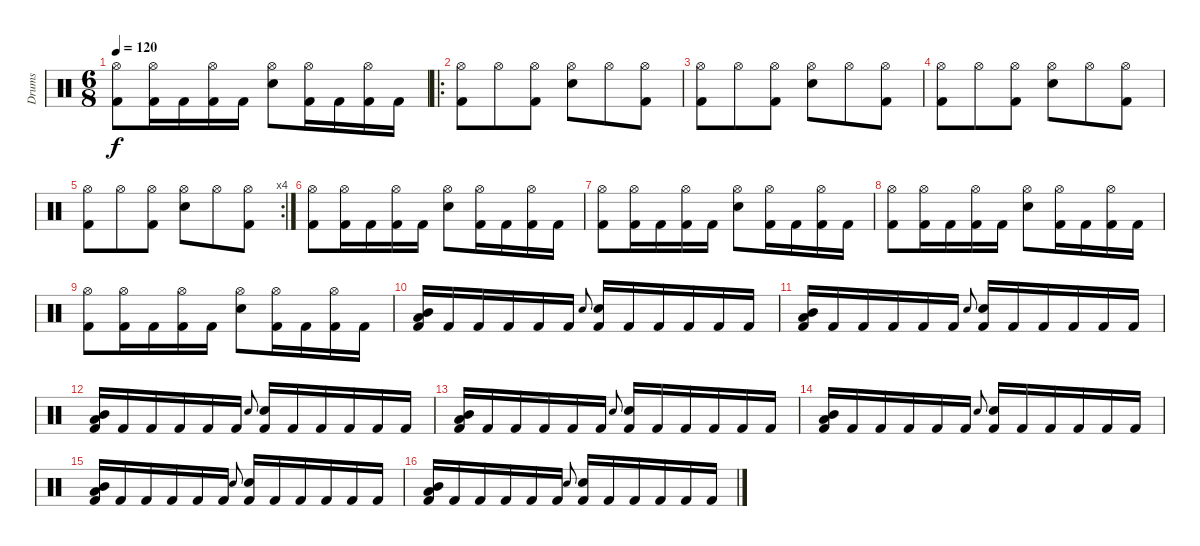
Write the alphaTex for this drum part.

\track ("Drums" "Drums") {instrument percussion}
\staff {score}
\articulation defaults
\ts (6 8)
\tempo 120
\clef neutral
\ks c
("Hi-Hat (open)" "Kick (hit) 2").8{dy f} ("Hi-Hat (open)" "Kick (hit) 2").16 "Kick (hit) 2".16 ("Hi-Hat (open)" "Kick (hit) 2").16 "Kick (hit) 2".16 ("Hi-Hat (open)" "Electric Snare (hit)").8 ("Hi-Hat (open)" "Kick (hit) 2").16 "Kick (hit) 2".16 ("Hi-Hat (open)" "Kick (hit) 2").16 "Kick (hit) 2".16 |
\ro
("Hi-Hat (open)" "Kick (hit) 2").8 "Hi-Hat (open)".8 ("Hi-Hat (open)" "Kick (hit) 2").8 ("Hi-Hat (open)" "Electric Snare (hit)").8 "Hi-Hat (open)".8 ("Hi-Hat (open)" "Kick (hit) 2").8 |
("Hi-Hat (open)" "Kick (hit) 2").8 "Hi-Hat (open)".8 ("Hi-Hat (open)" "Kick (hit) 2").8 ("Hi-Hat (open)" "Electric Snare (hit)").8 "Hi-Hat (open)".8 ("Hi-Hat (open)" "Kick (hit) 2").8 |
("Hi-Hat (open)" "Kick (hit) 2").8 "Hi-Hat (open)".8 ("Hi-Hat (open)" "Kick (hit) 2").8 ("Hi-Hat (open)" "Electric Snare (hit)").8 "Hi-Hat (open)".8 ("Hi-Hat (open)" "Kick (hit) 2").8 |
\rc 4
("Hi-Hat (open)" "Kick (hit) 2").8 "Hi-Hat (open)".8 ("Hi-Hat (open)" "Kick (hit) 2").8 ("Hi-Hat (open)" "Electric Snare (hit)").8 "Hi-Hat (open)".8 ("Hi-Hat (open)" "Kick (hit) 2").8 |
("Hi-Hat (open)" "Kick (hit) 2").8 ("Hi-Hat (open)" "Kick (hit) 2").16 "Kick (hit) 2".16 ("Hi-Hat (open)" "Kick (hit) 2").16 "Kick (hit) 2".16 ("Hi-Hat (open)" "Electric Snare (hit)").8 ("Hi-Hat (open)" "Kick (hit) 2").16 "Kick (hit) 2".16 ("Hi-Hat (open)" "Kick (hit) 2").16 "Kick (hit) 2".16 |
("Hi-Hat (open)" "Kick (hit) 2").8 ("Hi-Hat (open)" "Kick (hit) 2").16 "Kick (hit) 2".16 ("Hi-Hat (open)" "Kick (hit) 2").16 "Kick (hit) 2".16 ("Hi-Hat (open)" "Electric Snare (hit)").8 ("Hi-Hat (open)" "Kick (hit) 2").16 "Kick (hit) 2".16 ("Hi-Hat (open)" "Kick (hit) 2").16 "Kick (hit) 2".16 |
("Hi-Hat (open)" "Kick (hit) 2").8 ("Hi-Hat (open)" "Kick (hit) 2").16 "Kick (hit) 2".16 ("Hi-Hat (open)" "Kick (hit) 2").16 "Kick (hit) 2".16 ("Hi-Hat (open)" "Electric Snare (hit)").8 ("Hi-Hat (open)" "Kick (hit) 2").16 "Kick (hit) 2".16 ("Hi-Hat (open)" "Kick (hit) 2").16 "Kick (hit) 2".16 |
("Hi-Hat (open)" "Kick (hit) 2").8 ("Hi-Hat (open)" "Kick (hit) 2").16 "Kick (hit) 2".16 ("Hi-Hat (open)" "Kick (hit) 2").16 "Kick (hit) 2".16 ("Hi-Hat (open)" "Electric Snare (hit)").8 ("Hi-Hat (open)" "Kick (hit) 2").16 "Kick (hit) 2".16 ("Hi-Hat (open)" "Kick (hit) 2").16 "Kick (hit) 2".16 |
("Mid Tom (hit)" "Low Tom (hit)" "Kick (hit) 2").16 "Kick (hit) 2".16 "Kick (hit) 2".16 "Kick (hit) 2".16 "Kick (hit) 2".16 "Kick (hit) 2".16 "Electric Snare (hit)".8{gr onbeat} ("Electric Snare (hit)" "Kick (hit) 2").16 "Kick (hit) 2".16 "Kick (hit) 2".16 "Kick (hit) 2".16 "Kick (hit) 2".16 "Kick (hit) 2".16 |
("Mid Tom (hit)" "Low Tom (hit)" "Kick (hit) 2").16 "Kick (hit) 2".16 "Kick (hit) 2".16 "Kick (hit) 2".16 "Kick (hit) 2".16 "Kick (hit) 2".16 "Electric Snare (hit)".8{gr onbeat} ("Electric Snare (hit)" "Kick (hit) 2").16 "Kick (hit) 2".16 "Kick (hit) 2".16 "Kick (hit) 2".16 "Kick (hit) 2".16 "Kick (hit) 2".16 |
("Mid Tom (hit)" "Low Tom (hit)" "Kick (hit) 2").16 "Kick (hit) 2".16 "Kick (hit) 2".16 "Kick (hit) 2".16 "Kick (hit) 2".16 "Kick (hit) 2".16 "Electric Snare (hit)".8{gr onbeat} ("Electric Snare (hit)" "Kick (hit) 2").16 "Kick (hit) 2".16 "Kick (hit) 2".16 "Kick (hit) 2".16 "Kick (hit) 2".16 "Kick (hit) 2".16 |
("Mid Tom (hit)" "Low Tom (hit)" "Kick (hit) 2").16 "Kick (hit) 2".16 "Kick (hit) 2".16 "Kick (hit) 2".16 "Kick (hit) 2".16 "Kick (hit) 2".16 "Electric Snare (hit)".8{gr onbeat} ("Electric Snare (hit)" "Kick (hit) 2").16 "Kick (hit) 2".16 "Kick (hit) 2".16 "Kick (hit) 2".16 "Kick (hit) 2".16 "Kick (hit) 2".16 |
("Mid Tom (hit)" "Low Tom (hit)" "Kick (hit) 2").16 "Kick (hit) 2".16 "Kick (hit) 2".16 "Kick (hit) 2".16 "Kick (hit) 2".16 "Kick (hit) 2".16 "Electric Snare (hit)".8{gr onbeat} ("Electric Snare (hit)" "Kick (hit) 2").16 "Kick (hit) 2".16 "Kick (hit) 2".16 "Kick (hit) 2".16 "Kick (hit) 2".16 "Kick (hit) 2".16 |
("Mid Tom (hit)" "Low Tom (hit)" "Kick (hit) 2").16 "Kick (hit) 2".16 "Kick (hit) 2".16 "Kick (hit) 2".16 "Kick (hit) 2".16 "Kick (hit) 2".16 "Electric Snare (hit)".8{gr onbeat} ("Electric Snare (hit)" "Kick (hit) 2").16 "Kick (hit) 2".16 "Kick (hit) 2".16 "Kick (hit) 2".16 "Kick (hit) 2".16 "Kick (hit) 2".16 |
("Mid Tom (hit)" "Low Tom (hit)" "Kick (hit) 2").16 "Kick (hit) 2".16 "Kick (hit) 2".16 "Kick (hit) 2".16 "Kick (hit) 2".16 "Kick (hit) 2".16 "Electric Snare (hit)".8{gr onbeat} ("Electric Snare (hit)" "Kick (hit) 2").16 "Kick (hit) 2".16 "Kick (hit) 2".16 "Kick (hit) 2".16 "Kick (hit) 2".16 "Kick (hit) 2".16
